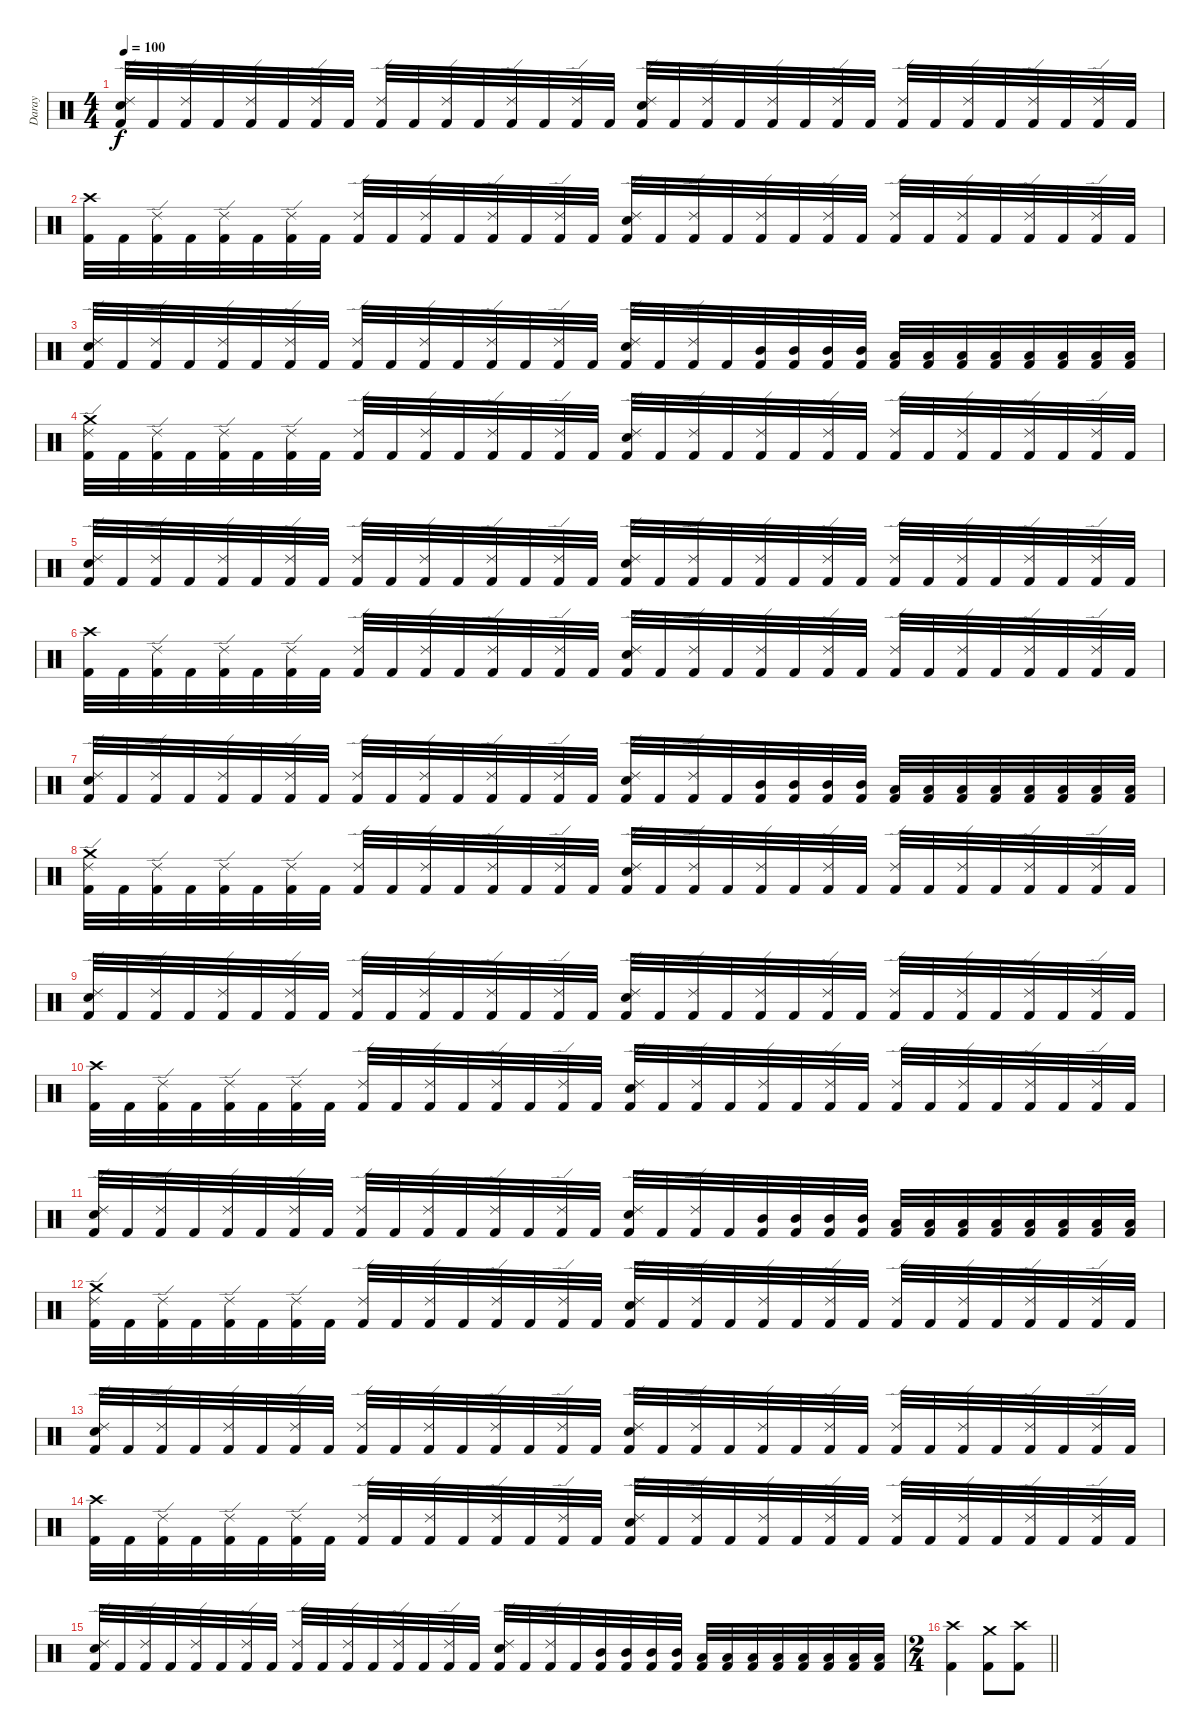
\track ("Daray" "Daray") {instrument percussion}
\staff {score}
\articulation defaults
\ts (4 4)
\tempo 100
\clef neutral
\ks c
("Snare (hit) 2" "Ride (edge) 2" "Kick (hit) 2").32{dy f} "Kick (hit) 2".32 ("Ride (edge) 2" "Kick (hit) 2").32 "Kick (hit) 2".32 ("Ride (edge) 2" "Kick (hit) 2").32 "Kick (hit) 2".32 ("Ride (edge) 2" "Kick (hit) 2").32 "Kick (hit) 2".32 ("Ride (edge) 2" "Kick (hit) 2").32 "Kick (hit) 2".32 ("Ride (edge) 2" "Kick (hit) 2").32 "Kick (hit) 2".32 ("Ride (edge) 2" "Kick (hit) 2").32 "Kick (hit) 2".32 ("Ride (edge) 2" "Kick (hit) 2").32 "Kick (hit) 2".32 ("Snare (hit) 2" "Ride (edge) 2" "Kick (hit) 2").32 "Kick (hit) 2".32 ("Ride (edge) 2" "Kick (hit) 2").32 "Kick (hit) 2".32 ("Ride (edge) 2" "Kick (hit) 2").32 "Kick (hit) 2".32 ("Ride (edge) 2" "Kick (hit) 2").32 "Kick (hit) 2".32 ("Ride (edge) 2" "Kick (hit) 2").32 "Kick (hit) 2".32 ("Ride (edge) 2" "Kick (hit) 2").32 "Kick (hit) 2".32 ("Ride (edge) 2" "Kick (hit) 2").32 "Kick (hit) 2".32 ("Ride (edge) 2" "Kick (hit) 2").32 "Kick (hit) 2".32 |
("Crash high (hit)" "Kick (hit) 2").32 "Kick (hit) 2".32 ("Ride (edge) 2" "Kick (hit) 2").32 "Kick (hit) 2".32 ("Ride (edge) 2" "Kick (hit) 2").32 "Kick (hit) 2".32 ("Ride (edge) 2" "Kick (hit) 2").32 "Kick (hit) 2".32 ("Ride (edge) 2" "Kick (hit) 2").32 "Kick (hit) 2".32 ("Ride (edge) 2" "Kick (hit) 2").32 "Kick (hit) 2".32 ("Ride (edge) 2" "Kick (hit) 2").32 "Kick (hit) 2".32 ("Ride (edge) 2" "Kick (hit) 2").32 "Kick (hit) 2".32 ("Snare (hit) 2" "Ride (edge) 2" "Kick (hit) 2").32 "Kick (hit) 2".32 ("Ride (edge) 2" "Kick (hit) 2").32 "Kick (hit) 2".32 ("Ride (edge) 2" "Kick (hit) 2").32 "Kick (hit) 2".32 ("Ride (edge) 2" "Kick (hit) 2").32 "Kick (hit) 2".32 ("Ride (edge) 2" "Kick (hit) 2").32 "Kick (hit) 2".32 ("Ride (edge) 2" "Kick (hit) 2").32 "Kick (hit) 2".32 ("Ride (edge) 2" "Kick (hit) 2").32 "Kick (hit) 2".32 ("Ride (edge) 2" "Kick (hit) 2").32 "Kick (hit) 2".32 |
("Snare (hit) 2" "Ride (edge) 2" "Kick (hit) 2").32 "Kick (hit) 2".32 ("Ride (edge) 2" "Kick (hit) 2").32 "Kick (hit) 2".32 ("Ride (edge) 2" "Kick (hit) 2").32 "Kick (hit) 2".32 ("Ride (edge) 2" "Kick (hit) 2").32 "Kick (hit) 2".32 ("Ride (edge) 2" "Kick (hit) 2").32 "Kick (hit) 2".32 ("Ride (edge) 2" "Kick (hit) 2").32 "Kick (hit) 2".32 ("Ride (edge) 2" "Kick (hit) 2").32 "Kick (hit) 2".32 ("Ride (edge) 2" "Kick (hit) 2").32 "Kick (hit) 2".32 ("Snare (hit) 2" "Ride (edge) 2" "Kick (hit) 2").32 "Kick (hit) 2".32 ("Ride (edge) 2" "Kick (hit) 2").32 "Kick (hit) 2".32 ("Mid Tom (hit)" "Kick (hit) 2").32 ("Mid Tom (hit)" "Kick (hit) 2").32 ("Mid Tom (hit)" "Kick (hit) 2").32 ("Mid Tom (hit)" "Kick (hit) 2").32 ("Low Tom (hit)" "Kick (hit) 2").32 ("Low Tom (hit)" "Kick (hit) 2").32 ("Low Tom (hit)" "Kick (hit) 2").32 ("Low Tom (hit)" "Kick (hit) 2").32 ("Low Tom (hit)" "Kick (hit) 2").32 ("Low Tom (hit)" "Kick (hit) 2").32 ("Low Floor Tom (hit)" "Kick (hit) 2").32 ("Low Floor Tom (hit)" "Kick (hit) 2").32 |
("Ride (edge) 2" "Crash medium (hit)" "Kick (hit) 2").32 "Kick (hit) 2".32 ("Ride (edge) 2" "Kick (hit) 2").32 "Kick (hit) 2".32 ("Ride (edge) 2" "Kick (hit) 2").32 "Kick (hit) 2".32 ("Ride (edge) 2" "Kick (hit) 2").32 "Kick (hit) 2".32 ("Ride (edge) 2" "Kick (hit) 2").32 "Kick (hit) 2".32 ("Ride (edge) 2" "Kick (hit) 2").32 "Kick (hit) 2".32 ("Ride (edge) 2" "Kick (hit) 2").32 "Kick (hit) 2".32 ("Ride (edge) 2" "Kick (hit) 2").32 "Kick (hit) 2".32 ("Snare (hit) 2" "Ride (edge) 2" "Kick (hit) 2").32 "Kick (hit) 2".32 ("Ride (edge) 2" "Kick (hit) 2").32 "Kick (hit) 2".32 ("Ride (edge) 2" "Kick (hit) 2").32 "Kick (hit) 2".32 ("Ride (edge) 2" "Kick (hit) 2").32 "Kick (hit) 2".32 ("Ride (edge) 2" "Kick (hit) 2").32 "Kick (hit) 2".32 ("Ride (edge) 2" "Kick (hit) 2").32 "Kick (hit) 2".32 ("Ride (edge) 2" "Kick (hit) 2").32 "Kick (hit) 2".32 ("Ride (edge) 2" "Kick (hit) 2").32 "Kick (hit) 2".32 |
("Snare (hit) 2" "Ride (edge) 2" "Kick (hit) 2").32 "Kick (hit) 2".32 ("Ride (edge) 2" "Kick (hit) 2").32 "Kick (hit) 2".32 ("Ride (edge) 2" "Kick (hit) 2").32 "Kick (hit) 2".32 ("Ride (edge) 2" "Kick (hit) 2").32 "Kick (hit) 2".32 ("Ride (edge) 2" "Kick (hit) 2").32 "Kick (hit) 2".32 ("Ride (edge) 2" "Kick (hit) 2").32 "Kick (hit) 2".32 ("Ride (edge) 2" "Kick (hit) 2").32 "Kick (hit) 2".32 ("Ride (edge) 2" "Kick (hit) 2").32 "Kick (hit) 2".32 ("Snare (hit) 2" "Ride (edge) 2" "Kick (hit) 2").32 "Kick (hit) 2".32 ("Ride (edge) 2" "Kick (hit) 2").32 "Kick (hit) 2".32 ("Ride (edge) 2" "Kick (hit) 2").32 "Kick (hit) 2".32 ("Ride (edge) 2" "Kick (hit) 2").32 "Kick (hit) 2".32 ("Ride (edge) 2" "Kick (hit) 2").32 "Kick (hit) 2".32 ("Ride (edge) 2" "Kick (hit) 2").32 "Kick (hit) 2".32 ("Ride (edge) 2" "Kick (hit) 2").32 "Kick (hit) 2".32 ("Ride (edge) 2" "Kick (hit) 2").32 "Kick (hit) 2".32 |
("Crash high (hit)" "Kick (hit) 2").32 "Kick (hit) 2".32 ("Ride (edge) 2" "Kick (hit) 2").32 "Kick (hit) 2".32 ("Ride (edge) 2" "Kick (hit) 2").32 "Kick (hit) 2".32 ("Ride (edge) 2" "Kick (hit) 2").32 "Kick (hit) 2".32 ("Ride (edge) 2" "Kick (hit) 2").32 "Kick (hit) 2".32 ("Ride (edge) 2" "Kick (hit) 2").32 "Kick (hit) 2".32 ("Ride (edge) 2" "Kick (hit) 2").32 "Kick (hit) 2".32 ("Ride (edge) 2" "Kick (hit) 2").32 "Kick (hit) 2".32 ("Snare (hit) 2" "Ride (edge) 2" "Kick (hit) 2").32 "Kick (hit) 2".32 ("Ride (edge) 2" "Kick (hit) 2").32 "Kick (hit) 2".32 ("Ride (edge) 2" "Kick (hit) 2").32 "Kick (hit) 2".32 ("Ride (edge) 2" "Kick (hit) 2").32 "Kick (hit) 2".32 ("Ride (edge) 2" "Kick (hit) 2").32 "Kick (hit) 2".32 ("Ride (edge) 2" "Kick (hit) 2").32 "Kick (hit) 2".32 ("Ride (edge) 2" "Kick (hit) 2").32 "Kick (hit) 2".32 ("Ride (edge) 2" "Kick (hit) 2").32 "Kick (hit) 2".32 |
("Snare (hit) 2" "Ride (edge) 2" "Kick (hit) 2").32 "Kick (hit) 2".32 ("Ride (edge) 2" "Kick (hit) 2").32 "Kick (hit) 2".32 ("Ride (edge) 2" "Kick (hit) 2").32 "Kick (hit) 2".32 ("Ride (edge) 2" "Kick (hit) 2").32 "Kick (hit) 2".32 ("Ride (edge) 2" "Kick (hit) 2").32 "Kick (hit) 2".32 ("Ride (edge) 2" "Kick (hit) 2").32 "Kick (hit) 2".32 ("Ride (edge) 2" "Kick (hit) 2").32 "Kick (hit) 2".32 ("Ride (edge) 2" "Kick (hit) 2").32 "Kick (hit) 2".32 ("Snare (hit) 2" "Ride (edge) 2" "Kick (hit) 2").32 "Kick (hit) 2".32 ("Ride (edge) 2" "Kick (hit) 2").32 "Kick (hit) 2".32 ("Mid Tom (hit)" "Kick (hit) 2").32 ("Mid Tom (hit)" "Kick (hit) 2").32 ("Mid Tom (hit)" "Kick (hit) 2").32 ("Mid Tom (hit)" "Kick (hit) 2").32 ("Low Tom (hit)" "Kick (hit) 2").32 ("Low Tom (hit)" "Kick (hit) 2").32 ("Low Tom (hit)" "Kick (hit) 2").32 ("Low Tom (hit)" "Kick (hit) 2").32 ("Low Tom (hit)" "Kick (hit) 2").32 ("Low Tom (hit)" "Kick (hit) 2").32 ("Low Floor Tom (hit)" "Kick (hit) 2").32 ("Low Floor Tom (hit)" "Kick (hit) 2").32 |
("Ride (edge) 2" "Crash medium (hit)" "Kick (hit) 2").32 "Kick (hit) 2".32 ("Ride (edge) 2" "Kick (hit) 2").32 "Kick (hit) 2".32 ("Ride (edge) 2" "Kick (hit) 2").32 "Kick (hit) 2".32 ("Ride (edge) 2" "Kick (hit) 2").32 "Kick (hit) 2".32 ("Ride (edge) 2" "Kick (hit) 2").32 "Kick (hit) 2".32 ("Ride (edge) 2" "Kick (hit) 2").32 "Kick (hit) 2".32 ("Ride (edge) 2" "Kick (hit) 2").32 "Kick (hit) 2".32 ("Ride (edge) 2" "Kick (hit) 2").32 "Kick (hit) 2".32 ("Snare (hit) 2" "Ride (edge) 2" "Kick (hit) 2").32 "Kick (hit) 2".32 ("Ride (edge) 2" "Kick (hit) 2").32 "Kick (hit) 2".32 ("Ride (edge) 2" "Kick (hit) 2").32 "Kick (hit) 2".32 ("Ride (edge) 2" "Kick (hit) 2").32 "Kick (hit) 2".32 ("Ride (edge) 2" "Kick (hit) 2").32 "Kick (hit) 2".32 ("Ride (edge) 2" "Kick (hit) 2").32 "Kick (hit) 2".32 ("Ride (edge) 2" "Kick (hit) 2").32 "Kick (hit) 2".32 ("Ride (edge) 2" "Kick (hit) 2").32 "Kick (hit) 2".32 |
("Snare (hit) 2" "Ride (edge) 2" "Kick (hit) 2").32 "Kick (hit) 2".32 ("Ride (edge) 2" "Kick (hit) 2").32 "Kick (hit) 2".32 ("Ride (edge) 2" "Kick (hit) 2").32 "Kick (hit) 2".32 ("Ride (edge) 2" "Kick (hit) 2").32 "Kick (hit) 2".32 ("Ride (edge) 2" "Kick (hit) 2").32 "Kick (hit) 2".32 ("Ride (edge) 2" "Kick (hit) 2").32 "Kick (hit) 2".32 ("Ride (edge) 2" "Kick (hit) 2").32 "Kick (hit) 2".32 ("Ride (edge) 2" "Kick (hit) 2").32 "Kick (hit) 2".32 ("Snare (hit) 2" "Ride (edge) 2" "Kick (hit) 2").32 "Kick (hit) 2".32 ("Ride (edge) 2" "Kick (hit) 2").32 "Kick (hit) 2".32 ("Ride (edge) 2" "Kick (hit) 2").32 "Kick (hit) 2".32 ("Ride (edge) 2" "Kick (hit) 2").32 "Kick (hit) 2".32 ("Ride (edge) 2" "Kick (hit) 2").32 "Kick (hit) 2".32 ("Ride (edge) 2" "Kick (hit) 2").32 "Kick (hit) 2".32 ("Ride (edge) 2" "Kick (hit) 2").32 "Kick (hit) 2".32 ("Ride (edge) 2" "Kick (hit) 2").32 "Kick (hit) 2".32 |
("Crash high (hit)" "Kick (hit) 2").32 "Kick (hit) 2".32 ("Ride (edge) 2" "Kick (hit) 2").32 "Kick (hit) 2".32 ("Ride (edge) 2" "Kick (hit) 2").32 "Kick (hit) 2".32 ("Ride (edge) 2" "Kick (hit) 2").32 "Kick (hit) 2".32 ("Ride (edge) 2" "Kick (hit) 2").32 "Kick (hit) 2".32 ("Ride (edge) 2" "Kick (hit) 2").32 "Kick (hit) 2".32 ("Ride (edge) 2" "Kick (hit) 2").32 "Kick (hit) 2".32 ("Ride (edge) 2" "Kick (hit) 2").32 "Kick (hit) 2".32 ("Snare (hit) 2" "Ride (edge) 2" "Kick (hit) 2").32 "Kick (hit) 2".32 ("Ride (edge) 2" "Kick (hit) 2").32 "Kick (hit) 2".32 ("Ride (edge) 2" "Kick (hit) 2").32 "Kick (hit) 2".32 ("Ride (edge) 2" "Kick (hit) 2").32 "Kick (hit) 2".32 ("Ride (edge) 2" "Kick (hit) 2").32 "Kick (hit) 2".32 ("Ride (edge) 2" "Kick (hit) 2").32 "Kick (hit) 2".32 ("Ride (edge) 2" "Kick (hit) 2").32 "Kick (hit) 2".32 ("Ride (edge) 2" "Kick (hit) 2").32 "Kick (hit) 2".32 |
("Snare (hit) 2" "Ride (edge) 2" "Kick (hit) 2").32 "Kick (hit) 2".32 ("Ride (edge) 2" "Kick (hit) 2").32 "Kick (hit) 2".32 ("Ride (edge) 2" "Kick (hit) 2").32 "Kick (hit) 2".32 ("Ride (edge) 2" "Kick (hit) 2").32 "Kick (hit) 2".32 ("Ride (edge) 2" "Kick (hit) 2").32 "Kick (hit) 2".32 ("Ride (edge) 2" "Kick (hit) 2").32 "Kick (hit) 2".32 ("Ride (edge) 2" "Kick (hit) 2").32 "Kick (hit) 2".32 ("Ride (edge) 2" "Kick (hit) 2").32 "Kick (hit) 2".32 ("Snare (hit) 2" "Ride (edge) 2" "Kick (hit) 2").32 "Kick (hit) 2".32 ("Ride (edge) 2" "Kick (hit) 2").32 "Kick (hit) 2".32 ("Mid Tom (hit)" "Kick (hit) 2").32 ("Mid Tom (hit)" "Kick (hit) 2").32 ("Mid Tom (hit)" "Kick (hit) 2").32 ("Mid Tom (hit)" "Kick (hit) 2").32 ("Low Tom (hit)" "Kick (hit) 2").32 ("Low Tom (hit)" "Kick (hit) 2").32 ("Low Tom (hit)" "Kick (hit) 2").32 ("Low Tom (hit)" "Kick (hit) 2").32 ("Low Tom (hit)" "Kick (hit) 2").32 ("Low Tom (hit)" "Kick (hit) 2").32 ("Low Floor Tom (hit)" "Kick (hit) 2").32 ("Low Floor Tom (hit)" "Kick (hit) 2").32 |
("Ride (edge) 2" "Crash medium (hit)" "Kick (hit) 2").32 "Kick (hit) 2".32 ("Ride (edge) 2" "Kick (hit) 2").32 "Kick (hit) 2".32 ("Ride (edge) 2" "Kick (hit) 2").32 "Kick (hit) 2".32 ("Ride (edge) 2" "Kick (hit) 2").32 "Kick (hit) 2".32 ("Ride (edge) 2" "Kick (hit) 2").32 "Kick (hit) 2".32 ("Ride (edge) 2" "Kick (hit) 2").32 "Kick (hit) 2".32 ("Ride (edge) 2" "Kick (hit) 2").32 "Kick (hit) 2".32 ("Ride (edge) 2" "Kick (hit) 2").32 "Kick (hit) 2".32 ("Snare (hit) 2" "Ride (edge) 2" "Kick (hit) 2").32 "Kick (hit) 2".32 ("Ride (edge) 2" "Kick (hit) 2").32 "Kick (hit) 2".32 ("Ride (edge) 2" "Kick (hit) 2").32 "Kick (hit) 2".32 ("Ride (edge) 2" "Kick (hit) 2").32 "Kick (hit) 2".32 ("Ride (edge) 2" "Kick (hit) 2").32 "Kick (hit) 2".32 ("Ride (edge) 2" "Kick (hit) 2").32 "Kick (hit) 2".32 ("Ride (edge) 2" "Kick (hit) 2").32 "Kick (hit) 2".32 ("Ride (edge) 2" "Kick (hit) 2").32 "Kick (hit) 2".32 |
("Snare (hit) 2" "Ride (edge) 2" "Kick (hit) 2").32 "Kick (hit) 2".32 ("Ride (edge) 2" "Kick (hit) 2").32 "Kick (hit) 2".32 ("Ride (edge) 2" "Kick (hit) 2").32 "Kick (hit) 2".32 ("Ride (edge) 2" "Kick (hit) 2").32 "Kick (hit) 2".32 ("Ride (edge) 2" "Kick (hit) 2").32 "Kick (hit) 2".32 ("Ride (edge) 2" "Kick (hit) 2").32 "Kick (hit) 2".32 ("Ride (edge) 2" "Kick (hit) 2").32 "Kick (hit) 2".32 ("Ride (edge) 2" "Kick (hit) 2").32 "Kick (hit) 2".32 ("Snare (hit) 2" "Ride (edge) 2" "Kick (hit) 2").32 "Kick (hit) 2".32 ("Ride (edge) 2" "Kick (hit) 2").32 "Kick (hit) 2".32 ("Ride (edge) 2" "Kick (hit) 2").32 "Kick (hit) 2".32 ("Ride (edge) 2" "Kick (hit) 2").32 "Kick (hit) 2".32 ("Ride (edge) 2" "Kick (hit) 2").32 "Kick (hit) 2".32 ("Ride (edge) 2" "Kick (hit) 2").32 "Kick (hit) 2".32 ("Ride (edge) 2" "Kick (hit) 2").32 "Kick (hit) 2".32 ("Ride (edge) 2" "Kick (hit) 2").32 "Kick (hit) 2".32 |
("Crash high (hit)" "Kick (hit) 2").32 "Kick (hit) 2".32 ("Ride (edge) 2" "Kick (hit) 2").32 "Kick (hit) 2".32 ("Ride (edge) 2" "Kick (hit) 2").32 "Kick (hit) 2".32 ("Ride (edge) 2" "Kick (hit) 2").32 "Kick (hit) 2".32 ("Ride (edge) 2" "Kick (hit) 2").32 "Kick (hit) 2".32 ("Ride (edge) 2" "Kick (hit) 2").32 "Kick (hit) 2".32 ("Ride (edge) 2" "Kick (hit) 2").32 "Kick (hit) 2".32 ("Ride (edge) 2" "Kick (hit) 2").32 "Kick (hit) 2".32 ("Snare (hit) 2" "Ride (edge) 2" "Kick (hit) 2").32 "Kick (hit) 2".32 ("Ride (edge) 2" "Kick (hit) 2").32 "Kick (hit) 2".32 ("Ride (edge) 2" "Kick (hit) 2").32 "Kick (hit) 2".32 ("Ride (edge) 2" "Kick (hit) 2").32 "Kick (hit) 2".32 ("Ride (edge) 2" "Kick (hit) 2").32 "Kick (hit) 2".32 ("Ride (edge) 2" "Kick (hit) 2").32 "Kick (hit) 2".32 ("Ride (edge) 2" "Kick (hit) 2").32 "Kick (hit) 2".32 ("Ride (edge) 2" "Kick (hit) 2").32 "Kick (hit) 2".32 |
("Snare (hit) 2" "Ride (edge) 2" "Kick (hit) 2").32 "Kick (hit) 2".32 ("Ride (edge) 2" "Kick (hit) 2").32 "Kick (hit) 2".32 ("Ride (edge) 2" "Kick (hit) 2").32 "Kick (hit) 2".32 ("Ride (edge) 2" "Kick (hit) 2").32 "Kick (hit) 2".32 ("Ride (edge) 2" "Kick (hit) 2").32 "Kick (hit) 2".32 ("Ride (edge) 2" "Kick (hit) 2").32 "Kick (hit) 2".32 ("Ride (edge) 2" "Kick (hit) 2").32 "Kick (hit) 2".32 ("Ride (edge) 2" "Kick (hit) 2").32 "Kick (hit) 2".32 ("Snare (hit) 2" "Ride (edge) 2" "Kick (hit) 2").32 "Kick (hit) 2".32 ("Ride (edge) 2" "Kick (hit) 2").32 "Kick (hit) 2".32 ("Mid Tom (hit)" "Kick (hit) 2").32 ("Mid Tom (hit)" "Kick (hit) 2").32 ("Mid Tom (hit)" "Kick (hit) 2").32 ("Mid Tom (hit)" "Kick (hit) 2").32 ("Low Tom (hit)" "Kick (hit) 2").32 ("Low Tom (hit)" "Kick (hit) 2").32 ("Low Tom (hit)" "Kick (hit) 2").32 ("Low Tom (hit)" "Kick (hit) 2").32 ("Low Tom (hit)" "Kick (hit) 2").32 ("Low Tom (hit)" "Kick (hit) 2").32 ("Low Floor Tom (hit)" "Kick (hit) 2").32 ("Low Floor Tom (hit)" "Kick (hit) 2").32 |
\ts (2 4)
\barLineRight lightlight
("Crash high (hit)" "Kick (hit) 2").4 ("Crash medium (hit)" "Kick (hit) 2").8 ("Crash high (hit)" "Kick (hit) 2").8
